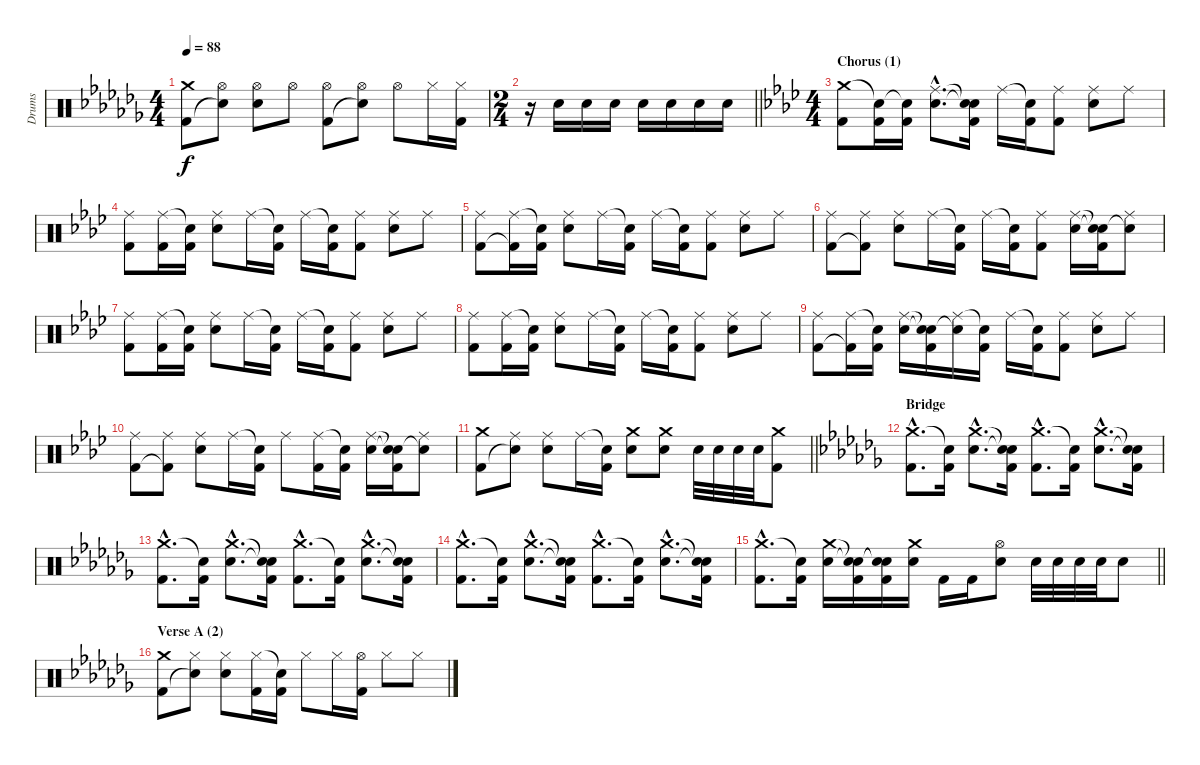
\track ("Drums" "Drums") {instrument percussion}
\staff {score}
\articulation defaults
\ts (4 4)
\tempo 88
\clef neutral
\ks abminor
("Crash medium (hit)" "Kick (hit) 2").8{dy f} ("Hi-Hat (open)" "Snare (hit)"{t}).8 ("Hi-Hat (open)" "Electric Snare (hit)").8 "Hi-Hat (open)".8 ("Hi-Hat (open)" "Kick (hit) 2").8 ("Hi-Hat (open)" "Snare (hit)"{t}).8 "Hi-Hat (open)".8 "Hi-Hat (closed)".16 ("Hi-Hat (closed)" "Kick (hit) 2").16 |
\ts (2 4)
\barLineRight lightlight
r.16 "Electric Snare (hit)".16 "Electric Snare (hit)".16 "Electric Snare (hit)".16 "Electric Snare (hit)".16 "Electric Snare (hit)".16 "Electric Snare (hit)".16 "Electric Snare (hit)".16 |
\ts (4 4)
\section ("" "Chorus (1)")
\ks fminor
("Crash medium (hit)" "Kick (hit) 2").8 ("Snare (hit)"{t} "Kick (hit) 2").16 ("Snare (hit)"{t} "Kick (hit) 2").16 ("Ride (middle)"{hac} "Electric Snare (hit)"{hac}).8{d} ("Snare (hit)"{t} "Snare (hit)"{t} "Kick (hit) 2").16 "Ride (middle)".16 ("Snare (hit)"{t} "Kick (hit) 2").16 ("Ride (middle)" "Kick (hit) 2").8 ("Ride (middle)" "Electric Snare (hit)").8 "Ride (middle)".8 |
("Ride (middle)" "Kick (hit) 2").8 ("Ride (middle)" "Kick (hit) 2").16 ("Snare (hit)"{t} "Kick (hit) 2").16 ("Ride (middle)" "Electric Snare (hit)").8 "Ride (middle)".16 ("Snare (hit)"{t} "Kick (hit) 2").16 "Ride (middle)".16 ("Snare (hit)"{t} "Kick (hit) 2").16 ("Ride (middle)" "Kick (hit) 2").8 ("Ride (middle)" "Electric Snare (hit)").8 "Ride (middle)".8 |
("Ride (middle)" "Kick (hit) 2").8 ("Ride (middle)" "Kick (hit) 2"{t}).16 ("Snare (hit)"{t} "Kick (hit) 2").16 ("Ride (middle)" "Electric Snare (hit)").8 "Ride (middle)".16 ("Snare (hit)"{t} "Kick (hit) 2").16 "Ride (middle)".16 ("Snare (hit)"{t} "Kick (hit) 2").16 ("Ride (middle)" "Kick (hit) 2").8 ("Ride (middle)" "Electric Snare (hit)").8 "Ride (middle)".8 |
("Ride (middle)" "Kick (hit) 2").8 ("Ride (middle)" "Kick (hit) 2"{t}).8 ("Ride (middle)" "Electric Snare (hit)").8 "Ride (middle)".16 ("Snare (hit)"{t} "Kick (hit) 2").16 "Ride (middle)".16 ("Snare (hit)"{t} "Kick (hit) 2").16 ("Ride (middle)" "Kick (hit) 2").8 ("Ride (middle)" "Electric Snare (hit)").16 ("Snare (hit)"{t} "Snare (hit)"{t} "Kick (hit) 2").16 ("Ride (middle)" "Snare (hit)"{t}).8 |
("Ride (middle)" "Kick (hit) 2").8 ("Ride (middle)" "Kick (hit) 2").16 ("Snare (hit)"{t} "Kick (hit) 2").16 ("Ride (middle)" "Electric Snare (hit)").8 "Ride (middle)".16 ("Snare (hit)"{t} "Kick (hit) 2").16 "Ride (middle)".16 ("Snare (hit)"{t} "Kick (hit) 2").16 ("Ride (middle)" "Kick (hit) 2").8 ("Ride (middle)" "Electric Snare (hit)").8 "Ride (middle)".8 |
("Ride (middle)" "Kick (hit) 2").8 ("Ride (middle)" "Kick (hit) 2").16 ("Snare (hit)"{t} "Kick (hit) 2").16 ("Ride (middle)" "Electric Snare (hit)").8 "Ride (middle)".16 ("Snare (hit)"{t} "Kick (hit) 2").16 "Ride (middle)".16 ("Snare (hit)"{t} "Kick (hit) 2").16 ("Ride (middle)" "Kick (hit) 2").8 ("Ride (middle)" "Electric Snare (hit)").8 "Ride (middle)".8 |
("Ride (middle)" "Kick (hit) 2").8 ("Ride (middle)" "Kick (hit) 2"{t}).16 ("Snare (hit)"{t} "Kick (hit) 2").16 ("Ride (middle)" "Electric Snare (hit)").16 ("Snare (hit)"{t} "Snare (hit)"{t} "Kick (hit) 2").16 ("Ride (middle)" "Snare (hit)"{t}).16 ("Snare (hit)"{t} "Kick (hit) 2").16 "Ride (middle)".16 ("Snare (hit)"{t} "Kick (hit) 2").16 ("Ride (middle)" "Kick (hit) 2").8 ("Ride (middle)" "Electric Snare (hit)").8 "Ride (middle)".8 |
("Ride (middle)" "Kick (hit) 2").8 ("Ride (middle)" "Kick (hit) 2"{t}).8 ("Ride (middle)" "Electric Snare (hit)").8 "Ride (middle)".16 ("Snare (hit)"{t} "Kick (hit) 2").16 "Ride (middle)".8 ("Ride (middle)" "Kick (hit) 2").16 ("Snare (hit)"{t} "Kick (hit) 2").16 ("Ride (middle)" "Electric Snare (hit)").16 ("Snare (hit)"{t} "Snare (hit)"{t} "Kick (hit) 2").16 ("Ride (middle)" "Snare (hit)"{t}).8 |
\barLineRight lightlight
("Crash medium (hit)" "Kick (hit) 2").8 ("Ride (middle)" "Snare (hit)"{t}).8 ("Ride (middle)" "Electric Snare (hit)").8 "Ride (middle)".16 ("Snare (hit)"{t} "Kick (hit) 2").16 ("Crash medium (hit)" "Electric Snare (hit)").8 ("Crash medium (hit)" "Electric Snare (hit)").8 "Electric Snare (hit)".32 "Electric Snare (hit)".32 "Electric Snare (hit)".32 "Electric Snare (hit)".32 ("Crash medium (hit)" "Kick (hit) 2").8 |
\section ("" "Bridge")
\ks abminor
("Crash medium (hit)"{hac} "Kick (hit) 2"{hac}).8{d} ("Snare (hit)"{t} "Kick (hit) 2").16 ("Crash medium (hit)"{hac} "Electric Snare (hit)"{hac}).8{d} ("Snare (hit)"{t} "Snare (hit)"{t} "Kick (hit) 2").16 ("Crash medium (hit)"{hac} "Kick (hit) 2"{hac}).8{d} ("Snare (hit)"{t} "Kick (hit) 2").16 ("Crash medium (hit)"{hac} "Electric Snare (hit)"{hac}).8{d} ("Snare (hit)"{t} "Snare (hit)"{t} "Kick (hit) 2").16 |
("Crash medium (hit)"{hac} "Kick (hit) 2"{hac}).8{d} ("Snare (hit)"{t} "Kick (hit) 2").16 ("Crash medium (hit)"{hac} "Electric Snare (hit)"{hac}).8{d} ("Snare (hit)"{t} "Snare (hit)"{t} "Kick (hit) 2").16 ("Crash medium (hit)"{hac} "Kick (hit) 2"{hac}).8{d} ("Snare (hit)"{t} "Kick (hit) 2").16 ("Crash medium (hit)"{hac} "Electric Snare (hit)"{hac}).8{d} ("Snare (hit)"{t} "Snare (hit)"{t} "Kick (hit) 2").16 |
("Crash medium (hit)"{hac} "Kick (hit) 2"{hac}).8{d} ("Snare (hit)"{t} "Kick (hit) 2").16 ("Crash medium (hit)"{hac} "Electric Snare (hit)"{hac}).8{d} ("Snare (hit)"{t} "Snare (hit)"{t} "Kick (hit) 2").16 ("Crash medium (hit)"{hac} "Kick (hit) 2"{hac}).8{d} ("Snare (hit)"{t} "Kick (hit) 2").16 ("Crash medium (hit)"{hac} "Electric Snare (hit)"{hac}).8{d} ("Snare (hit)"{t} "Snare (hit)"{t} "Kick (hit) 2").16 |
\barLineRight lightlight
("Crash medium (hit)"{hac} "Kick (hit) 2"{hac}).8{d} ("Snare (hit)"{t} "Kick (hit) 2").16 ("Crash medium (hit)" "Electric Snare (hit)").16 ("Snare (hit)"{t} "Snare (hit)"{t} "Kick (hit) 2").16 ("Snare (hit)"{t} "Snare (hit)"{t} "Kick (hit) 2").16 ("Crash medium (hit)" "Electric Snare (hit)").16 "Kick (hit) 2".16 "Kick (hit) 2".16 ("Hi-Hat (open)" "Electric Snare (hit)").8 "Electric Snare (hit)".32 "Electric Snare (hit)".32 "Electric Snare (hit)".32 "Electric Snare (hit)".32 "Electric Snare (hit)".8 |
\section ("" "Verse A (2)")
("Crash medium (hit)" "Kick (hit) 2").8 ("Hi-Hat (closed)" "Snare (hit)"{t}).8 ("Hi-Hat (closed)" "Electric Snare (hit)").8 ("Hi-Hat (closed)" "Kick (hit) 2").16 ("Snare (hit)"{t} "Kick (hit) 2").16 "Hi-Hat (closed)".8 "Hi-Hat (closed)".16 ("Hi-Hat (open)" "Kick (hit) 2").16 "Hi-Hat (closed)".8 "Hi-Hat (closed)".8
